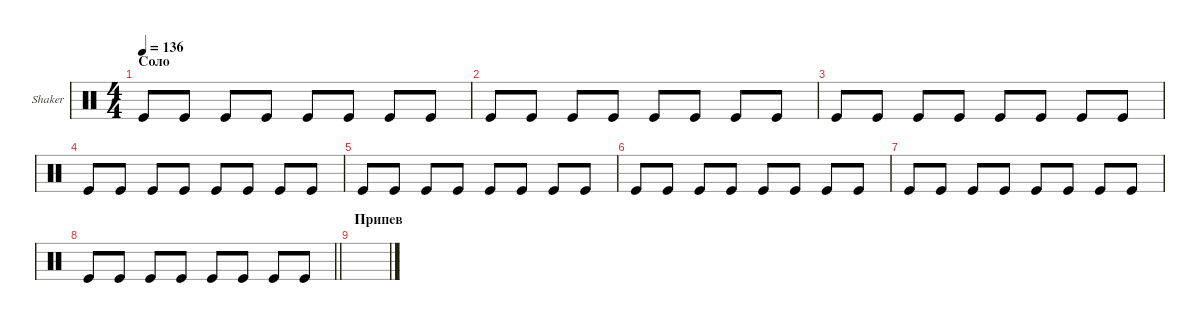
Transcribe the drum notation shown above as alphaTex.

\defaultSystemsLayout 4
\hideDynamics
\bracketExtendMode groupsimilarinstruments
\multiTrackTrackNamePolicy allsystems
\firstSystemTrackNameOrientation horizontal
\otherSystemsTrackNameOrientation horizontal
\track ("Shaker" "Shaker") {instrument percussion}
\staff {score}
\articulation defaults
\ts (4 4)
\section ("" "Соло")
\tempo 136
\clef neutral
\ks aminor "Kick (hit)".8{dy mf} "Kick (hit)".8 "Kick (hit)".8 "Kick (hit)".8 "Kick (hit)".8 "Kick (hit)".8 "Kick (hit)".8 "Kick (hit)".8
|
"Kick (hit)".8 "Kick (hit)".8 "Kick (hit)".8 "Kick (hit)".8 "Kick (hit)".8 "Kick (hit)".8 "Kick (hit)".8 "Kick (hit)".8 |
"Kick (hit)".8 "Kick (hit)".8 "Kick (hit)".8 "Kick (hit)".8 "Kick (hit)".8 "Kick (hit)".8 "Kick (hit)".8 "Kick (hit)".8 |
"Kick (hit)".8 "Kick (hit)".8 "Kick (hit)".8 "Kick (hit)".8 "Kick (hit)".8 "Kick (hit)".8 "Kick (hit)".8 "Kick (hit)".8 |
\scale
0.196787 "Kick (hit)".8 "Kick (hit)".8 "Kick (hit)".8 "Kick (hit)".8 "Kick (hit)".8 "Kick (hit)".8 "Kick (hit)".8 "Kick (hit)".8 |
\scale
0.204744 "Kick (hit)".8 "Kick (hit)".8 "Kick (hit)".8 "Kick (hit)".8 "Kick (hit)".8 "Kick (hit)".8 "Kick (hit)".8 "Kick (hit)".8 |
\scale
0.169836 "Kick (hit)".8 "Kick (hit)".8 "Kick (hit)".8 "Kick (hit)".8 "Kick (hit)".8 "Kick (hit)".8 "Kick (hit)".8 "Kick (hit)".8 |
\scale
0.186261
\barLineRight lightlight "Kick (hit)".8 "Kick (hit)".8 "Kick (hit)".8 "Kick (hit)".8 "Kick (hit)".8 "Kick (hit)".8 "Kick (hit)".8 "Kick (hit)".8
|
\section ("" "Припев")
\scale
0.241486 |
\scale
0.260558 |
\scale
0.234337 |
\scale
0.219416 |
\scale
0.284295 |
\scale
0.30198 |
\scale
0.212871 |
\scale
0.256596
